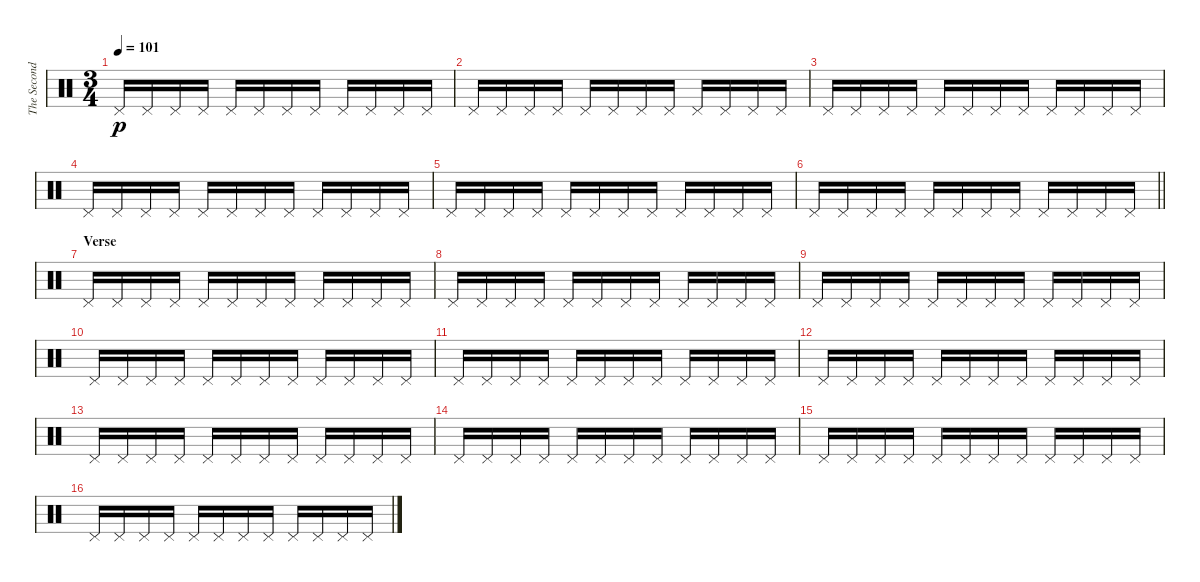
\track ("The Second Drummer" "The Second") {instrument percussion}
\staff {score}
\articulation defaults
\ts (3 4)
\tempo 101
\clef neutral
\ks c "Pedal Hi-Hat (hit)".16{dy p} "Pedal Hi-Hat (hit)".16 "Pedal Hi-Hat (hit)".16 "Pedal Hi-Hat (hit)".16 "Pedal Hi-Hat (hit)".16 "Pedal Hi-Hat (hit)".16 "Pedal Hi-Hat (hit)".16 "Pedal Hi-Hat (hit)".16 "Pedal Hi-Hat (hit)".16 "Pedal Hi-Hat (hit)".16 "Pedal Hi-Hat (hit)".16 "Pedal Hi-Hat (hit)".16
|
"Pedal Hi-Hat (hit)".16 "Pedal Hi-Hat (hit)".16 "Pedal Hi-Hat (hit)".16 "Pedal Hi-Hat (hit)".16 "Pedal Hi-Hat (hit)".16 "Pedal Hi-Hat (hit)".16 "Pedal Hi-Hat (hit)".16 "Pedal Hi-Hat (hit)".16 "Pedal Hi-Hat (hit)".16 "Pedal Hi-Hat (hit)".16 "Pedal Hi-Hat (hit)".16 "Pedal Hi-Hat (hit)".16 |
"Pedal Hi-Hat (hit)".16 "Pedal Hi-Hat (hit)".16 "Pedal Hi-Hat (hit)".16 "Pedal Hi-Hat (hit)".16 "Pedal Hi-Hat (hit)".16 "Pedal Hi-Hat (hit)".16 "Pedal Hi-Hat (hit)".16 "Pedal Hi-Hat (hit)".16 "Pedal Hi-Hat (hit)".16 "Pedal Hi-Hat (hit)".16 "Pedal Hi-Hat (hit)".16 "Pedal Hi-Hat (hit)".16 |
"Pedal Hi-Hat (hit)".16 "Pedal Hi-Hat (hit)".16 "Pedal Hi-Hat (hit)".16 "Pedal Hi-Hat (hit)".16 "Pedal Hi-Hat (hit)".16 "Pedal Hi-Hat (hit)".16 "Pedal Hi-Hat (hit)".16 "Pedal Hi-Hat (hit)".16 "Pedal Hi-Hat (hit)".16 "Pedal Hi-Hat (hit)".16 "Pedal Hi-Hat (hit)".16 "Pedal Hi-Hat (hit)".16 |
"Pedal Hi-Hat (hit)".16 "Pedal Hi-Hat (hit)".16 "Pedal Hi-Hat (hit)".16 "Pedal Hi-Hat (hit)".16 "Pedal Hi-Hat (hit)".16 "Pedal Hi-Hat (hit)".16 "Pedal Hi-Hat (hit)".16 "Pedal Hi-Hat (hit)".16 "Pedal Hi-Hat (hit)".16 "Pedal Hi-Hat (hit)".16 "Pedal Hi-Hat (hit)".16 "Pedal Hi-Hat (hit)".16 |
\barLineRight lightlight "Pedal Hi-Hat (hit)".16 "Pedal Hi-Hat (hit)".16 "Pedal Hi-Hat (hit)".16 "Pedal Hi-Hat (hit)".16 "Pedal Hi-Hat (hit)".16 "Pedal Hi-Hat (hit)".16 "Pedal Hi-Hat (hit)".16 "Pedal Hi-Hat (hit)".16 "Pedal Hi-Hat (hit)".16 "Pedal Hi-Hat (hit)".16 "Pedal Hi-Hat (hit)".16 "Pedal Hi-Hat (hit)".16
|
\section ("" "Verse ")
"Pedal Hi-Hat (hit)".16 "Pedal Hi-Hat (hit)".16 "Pedal Hi-Hat (hit)".16 "Pedal Hi-Hat (hit)".16 "Pedal Hi-Hat (hit)".16 "Pedal Hi-Hat (hit)".16 "Pedal Hi-Hat (hit)".16 "Pedal Hi-Hat (hit)".16 "Pedal Hi-Hat (hit)".16 "Pedal Hi-Hat (hit)".16 "Pedal Hi-Hat (hit)".16 "Pedal Hi-Hat (hit)".16 |
"Pedal Hi-Hat (hit)".16 "Pedal Hi-Hat (hit)".16 "Pedal Hi-Hat (hit)".16 "Pedal Hi-Hat (hit)".16 "Pedal Hi-Hat (hit)".16 "Pedal Hi-Hat (hit)".16 "Pedal Hi-Hat (hit)".16 "Pedal Hi-Hat (hit)".16 "Pedal Hi-Hat (hit)".16 "Pedal Hi-Hat (hit)".16 "Pedal Hi-Hat (hit)".16 "Pedal Hi-Hat (hit)".16 |
"Pedal Hi-Hat (hit)".16 "Pedal Hi-Hat (hit)".16 "Pedal Hi-Hat (hit)".16 "Pedal Hi-Hat (hit)".16 "Pedal Hi-Hat (hit)".16 "Pedal Hi-Hat (hit)".16 "Pedal Hi-Hat (hit)".16 "Pedal Hi-Hat (hit)".16 "Pedal Hi-Hat (hit)".16 "Pedal Hi-Hat (hit)".16 "Pedal Hi-Hat (hit)".16 "Pedal Hi-Hat (hit)".16 |
"Pedal Hi-Hat (hit)".16 "Pedal Hi-Hat (hit)".16 "Pedal Hi-Hat (hit)".16 "Pedal Hi-Hat (hit)".16 "Pedal Hi-Hat (hit)".16 "Pedal Hi-Hat (hit)".16 "Pedal Hi-Hat (hit)".16 "Pedal Hi-Hat (hit)".16 "Pedal Hi-Hat (hit)".16 "Pedal Hi-Hat (hit)".16 "Pedal Hi-Hat (hit)".16 "Pedal Hi-Hat (hit)".16 |
"Pedal Hi-Hat (hit)".16 "Pedal Hi-Hat (hit)".16 "Pedal Hi-Hat (hit)".16 "Pedal Hi-Hat (hit)".16 "Pedal Hi-Hat (hit)".16 "Pedal Hi-Hat (hit)".16 "Pedal Hi-Hat (hit)".16 "Pedal Hi-Hat (hit)".16 "Pedal Hi-Hat (hit)".16 "Pedal Hi-Hat (hit)".16 "Pedal Hi-Hat (hit)".16 "Pedal Hi-Hat (hit)".16 |
"Pedal Hi-Hat (hit)".16 "Pedal Hi-Hat (hit)".16 "Pedal Hi-Hat (hit)".16 "Pedal Hi-Hat (hit)".16 "Pedal Hi-Hat (hit)".16 "Pedal Hi-Hat (hit)".16 "Pedal Hi-Hat (hit)".16 "Pedal Hi-Hat (hit)".16 "Pedal Hi-Hat (hit)".16 "Pedal Hi-Hat (hit)".16 "Pedal Hi-Hat (hit)".16 "Pedal Hi-Hat (hit)".16 |
"Pedal Hi-Hat (hit)".16 "Pedal Hi-Hat (hit)".16 "Pedal Hi-Hat (hit)".16 "Pedal Hi-Hat (hit)".16 "Pedal Hi-Hat (hit)".16 "Pedal Hi-Hat (hit)".16 "Pedal Hi-Hat (hit)".16 "Pedal Hi-Hat (hit)".16 "Pedal Hi-Hat (hit)".16 "Pedal Hi-Hat (hit)".16 "Pedal Hi-Hat (hit)".16 "Pedal Hi-Hat (hit)".16 |
"Pedal Hi-Hat (hit)".16 "Pedal Hi-Hat (hit)".16 "Pedal Hi-Hat (hit)".16 "Pedal Hi-Hat (hit)".16 "Pedal Hi-Hat (hit)".16 "Pedal Hi-Hat (hit)".16 "Pedal Hi-Hat (hit)".16 "Pedal Hi-Hat (hit)".16 "Pedal Hi-Hat (hit)".16 "Pedal Hi-Hat (hit)".16 "Pedal Hi-Hat (hit)".16 "Pedal Hi-Hat (hit)".16 |
"Pedal Hi-Hat (hit)".16 "Pedal Hi-Hat (hit)".16 "Pedal Hi-Hat (hit)".16 "Pedal Hi-Hat (hit)".16 "Pedal Hi-Hat (hit)".16 "Pedal Hi-Hat (hit)".16 "Pedal Hi-Hat (hit)".16 "Pedal Hi-Hat (hit)".16 "Pedal Hi-Hat (hit)".16 "Pedal Hi-Hat (hit)".16 "Pedal Hi-Hat (hit)".16 "Pedal Hi-Hat (hit)".16 |
"Pedal Hi-Hat (hit)".16 "Pedal Hi-Hat (hit)".16 "Pedal Hi-Hat (hit)".16 "Pedal Hi-Hat (hit)".16 "Pedal Hi-Hat (hit)".16 "Pedal Hi-Hat (hit)".16 "Pedal Hi-Hat (hit)".16 "Pedal Hi-Hat (hit)".16 "Pedal Hi-Hat (hit)".16 "Pedal Hi-Hat (hit)".16 "Pedal Hi-Hat (hit)".16 "Pedal Hi-Hat (hit)".16
